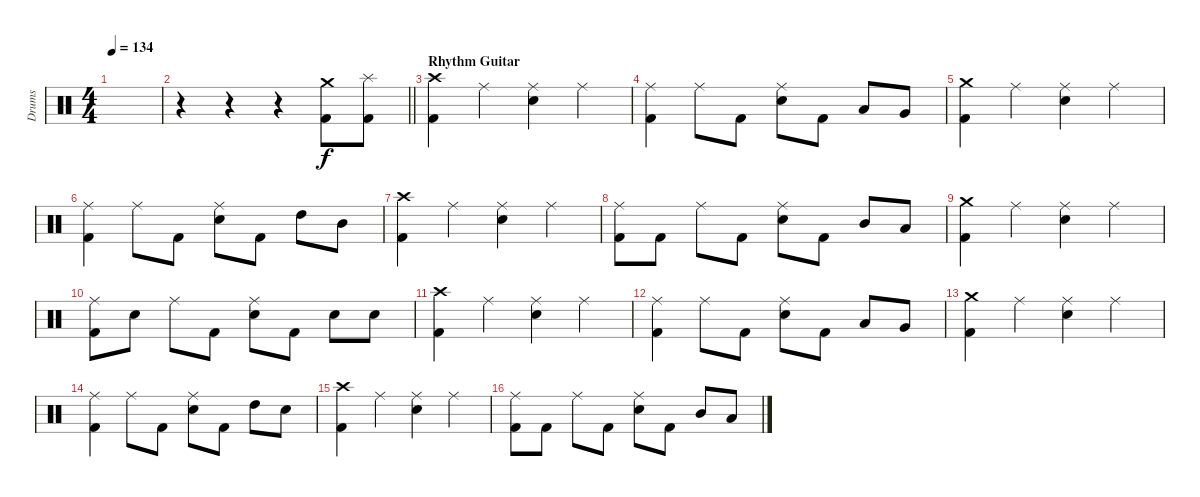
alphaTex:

\track ("Drums" "Drums") {instrument percussion}
\staff {score}
\articulation defaults
\ts (4 4)
\tempo 134
\clef neutral
\ks c
|
\barLineRight lightlight
r.4 r.4 r.4 ("Crash medium (hit)" "Kick (hit) 2").8 ("Splash (hit)" "Kick (hit) 2").8 |
\section ("" "Rhythm Guitar")
("Crash high (hit)" "Kick (hit) 2").4 "Ride (middle)".4 ("Ride (middle)" "Electric Snare (hit)").4 "Ride (middle)".4 |
("Ride (middle)" "Kick (hit) 2").4 "Ride (middle)".8 "Kick (hit) 2".8 ("Ride (middle)" "Electric Snare (hit)").8 "Kick (hit) 2".8 "Low Tom (hit)".8 "Very Low Tom (hit)".8 |
("Crash medium (hit)" "Kick (hit) 2").4 "Ride (middle)".4 ("Ride (middle)" "Electric Snare (hit)").4 "Ride (middle)".4 |
("Ride (middle)" "Kick (hit) 2").4 "Ride (middle)".8 "Kick (hit) 2".8 ("Ride (middle)" "Electric Snare (hit)").8 "Kick (hit) 2".8 "High Tom (hit)".8 "Mid Tom (hit)".8 |
("Crash high (hit)" "Kick (hit) 2").4 "Ride (middle)".4 ("Ride (middle)" "Electric Snare (hit)").4 "Ride (middle)".4 |
("Ride (middle)" "Kick (hit) 2").8 "Kick (hit) 2".8 "Ride (middle)".8 "Kick (hit) 2".8 ("Ride (middle)" "Electric Snare (hit)").8 "Kick (hit) 2".8 "Mid Tom (hit)".8 "Low Tom (hit)".8 |
("Crash medium (hit)" "Kick (hit) 2").4 "Ride (middle)".4 ("Ride (middle)" "Electric Snare (hit)").4 "Ride (middle)".4 |
("Ride (middle)" "Kick (hit) 2").8 "Electric Snare (hit)".8 "Ride (middle)".8 "Kick (hit) 2".8 ("Ride (middle)" "Electric Snare (hit)").8 "Kick (hit) 2".8 "Electric Snare (hit)".8 "Electric Snare (hit)".8 |
("Crash high (hit)" "Kick (hit) 2").4 "Ride (middle)".4 ("Ride (middle)" "Electric Snare (hit)").4 "Ride (middle)".4 |
("Ride (middle)" "Kick (hit) 2").4 "Ride (middle)".8 "Kick (hit) 2".8 ("Ride (middle)" "Electric Snare (hit)").8 "Kick (hit) 2".8 "Low Tom (hit)".8 "Very Low Tom (hit)".8 |
("Crash medium (hit)" "Kick (hit) 2").4 "Ride (middle)".4 ("Ride (middle)" "Electric Snare (hit)").4 "Ride (middle)".4 |
("Ride (middle)" "Kick (hit) 2").4 "Ride (middle)".8 "Kick (hit) 2".8 ("Ride (middle)" "Electric Snare (hit)").8 "Kick (hit) 2".8 "High Tom (hit)".8 "Electric Snare (hit)".8 |
("Crash high (hit)" "Kick (hit) 2").4 "Ride (middle)".4 ("Ride (middle)" "Electric Snare (hit)").4 "Ride (middle)".4 |
("Ride (middle)" "Kick (hit) 2").8 "Kick (hit) 2".8 "Ride (middle)".8 "Kick (hit) 2".8 ("Ride (middle)" "Electric Snare (hit)").8 "Kick (hit) 2".8 "Mid Tom (hit)".8 "Low Tom (hit)".8
